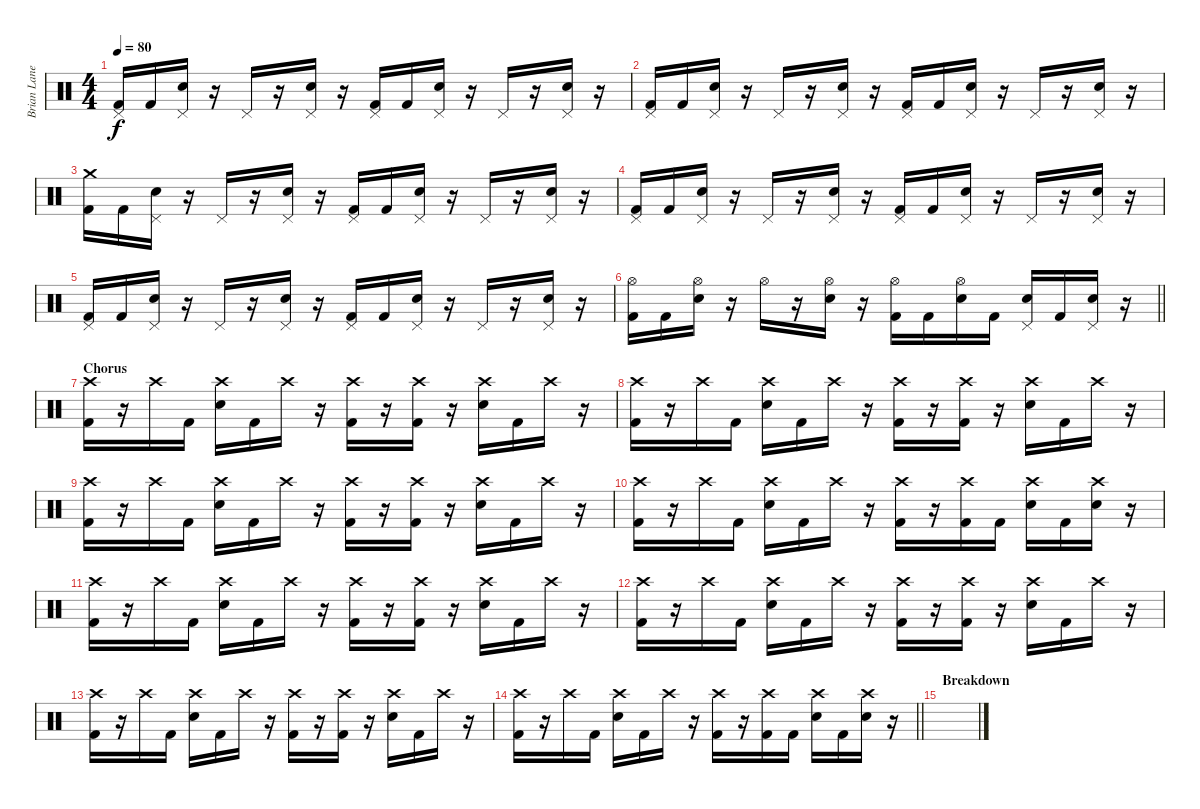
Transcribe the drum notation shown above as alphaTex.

\track ("Brian Lane" "Brian Lane") {instrument percussion}
\staff {score}
\articulation defaults
\ts (4 4)
\tempo 80
\clef neutral
\ks c
("Pedal Hi-Hat (hit)" "Kick (hit) 2").16{dy f} "Kick (hit) 2".16 ("Pedal Hi-Hat (hit)" "Electric Snare (hit)").16 r.16 "Pedal Hi-Hat (hit)".16 r.16 ("Pedal Hi-Hat (hit)" "Electric Snare (hit)").16 r.16 ("Pedal Hi-Hat (hit)" "Kick (hit) 2").16 "Kick (hit) 2".16 ("Pedal Hi-Hat (hit)" "Electric Snare (hit)").16 r.16 "Pedal Hi-Hat (hit)".16 r.16 ("Pedal Hi-Hat (hit)" "Electric Snare (hit)").16 r.16 |
("Pedal Hi-Hat (hit)" "Kick (hit) 2").16 "Kick (hit) 2".16 ("Pedal Hi-Hat (hit)" "Electric Snare (hit)").16 r.16 "Pedal Hi-Hat (hit)".16 r.16 ("Pedal Hi-Hat (hit)" "Electric Snare (hit)").16 r.16 ("Pedal Hi-Hat (hit)" "Kick (hit) 2").16 "Kick (hit) 2".16 ("Pedal Hi-Hat (hit)" "Electric Snare (hit)").16 r.16 "Pedal Hi-Hat (hit)".16 r.16 ("Pedal Hi-Hat (hit)" "Electric Snare (hit)").16 r.16 |
("Crash medium (hit)" "Kick (hit) 2").16 "Kick (hit) 2".16 ("Pedal Hi-Hat (hit)" "Electric Snare (hit)").16 r.16 "Pedal Hi-Hat (hit)".16 r.16 ("Pedal Hi-Hat (hit)" "Electric Snare (hit)").16 r.16 ("Pedal Hi-Hat (hit)" "Kick (hit) 2").16 "Kick (hit) 2".16 ("Pedal Hi-Hat (hit)" "Electric Snare (hit)").16 r.16 "Pedal Hi-Hat (hit)".16 r.16 ("Pedal Hi-Hat (hit)" "Electric Snare (hit)").16 r.16 |
("Pedal Hi-Hat (hit)" "Kick (hit) 2").16 "Kick (hit) 2".16 ("Pedal Hi-Hat (hit)" "Electric Snare (hit)").16 r.16 "Pedal Hi-Hat (hit)".16 r.16 ("Pedal Hi-Hat (hit)" "Electric Snare (hit)").16 r.16 ("Pedal Hi-Hat (hit)" "Kick (hit) 2").16 "Kick (hit) 2".16 ("Pedal Hi-Hat (hit)" "Electric Snare (hit)").16 r.16 "Pedal Hi-Hat (hit)".16 r.16 ("Pedal Hi-Hat (hit)" "Electric Snare (hit)").16 r.16 |
("Pedal Hi-Hat (hit)" "Kick (hit) 2").16 "Kick (hit) 2".16 ("Pedal Hi-Hat (hit)" "Electric Snare (hit)").16 r.16 "Pedal Hi-Hat (hit)".16 r.16 ("Pedal Hi-Hat (hit)" "Electric Snare (hit)").16 r.16 ("Pedal Hi-Hat (hit)" "Kick (hit) 2").16 "Kick (hit) 2".16 ("Pedal Hi-Hat (hit)" "Electric Snare (hit)").16 r.16 "Pedal Hi-Hat (hit)".16 r.16 ("Pedal Hi-Hat (hit)" "Electric Snare (hit)").16 r.16 |
\barLineRight lightlight
("Hi-Hat (open)" "Kick (hit) 2").16 "Kick (hit) 2".16 ("Hi-Hat (open)" "Electric Snare (hit)").16 r.16 "Hi-Hat (open)".16 r.16 ("Hi-Hat (open)" "Electric Snare (hit)").16 r.16 ("Hi-Hat (open)" "Kick (hit) 2").16 "Kick (hit) 2".16 ("Hi-Hat (open)" "Electric Snare (hit)").16 "Kick (hit) 2".16 ("Pedal Hi-Hat (hit)" "Electric Snare (hit)").16 "Kick (hit) 2".16 ("Pedal Hi-Hat (hit)" "Electric Snare (hit)").16 r.16 |
\section ("" "Chorus")
("Crash high (hit)" "Kick (hit) 2").16 r.16 "Crash high (hit)".16 "Kick (hit) 2".16 ("Crash high (hit)" "Electric Snare (hit)").16 "Kick (hit) 2".16 "Crash high (hit)".16 r.16 ("Crash high (hit)" "Kick (hit) 2").16 r.16 ("Crash high (hit)" "Kick (hit) 2").16 r.16 ("Crash high (hit)" "Electric Snare (hit)").16 "Kick (hit) 2".16 "Crash high (hit)".16 r.16 |
("Crash high (hit)" "Kick (hit) 2").16 r.16 "Crash high (hit)".16 "Kick (hit) 2".16 ("Crash high (hit)" "Electric Snare (hit)").16 "Kick (hit) 2".16 "Crash high (hit)".16 r.16 ("Crash high (hit)" "Kick (hit) 2").16 r.16 ("Crash high (hit)" "Kick (hit) 2").16 r.16 ("Crash high (hit)" "Electric Snare (hit)").16 "Kick (hit) 2".16 "Crash high (hit)".16 r.16 |
("Crash high (hit)" "Kick (hit) 2").16 r.16 "Crash high (hit)".16 "Kick (hit) 2".16 ("Crash high (hit)" "Electric Snare (hit)").16 "Kick (hit) 2".16 "Crash high (hit)".16 r.16 ("Crash high (hit)" "Kick (hit) 2").16 r.16 ("Crash high (hit)" "Kick (hit) 2").16 r.16 ("Crash high (hit)" "Electric Snare (hit)").16 "Kick (hit) 2".16 "Crash high (hit)".16 r.16 |
("Crash high (hit)" "Kick (hit) 2").16 r.16 "Crash high (hit)".16 "Kick (hit) 2".16 ("Crash high (hit)" "Electric Snare (hit)").16 "Kick (hit) 2".16 "Crash high (hit)".16 r.16 ("Crash high (hit)" "Kick (hit) 2").16 r.16 ("Crash high (hit)" "Kick (hit) 2").16 "Kick (hit) 2".16 ("Crash high (hit)" "Electric Snare (hit)").16 "Kick (hit) 2".16 ("Crash high (hit)" "Electric Snare (hit)").16 r.16 |
("Crash high (hit)" "Kick (hit) 2").16 r.16 "Crash high (hit)".16 "Kick (hit) 2".16 ("Crash high (hit)" "Electric Snare (hit)").16 "Kick (hit) 2".16 "Crash high (hit)".16 r.16 ("Crash high (hit)" "Kick (hit) 2").16 r.16 ("Crash high (hit)" "Kick (hit) 2").16 r.16 ("Crash high (hit)" "Electric Snare (hit)").16 "Kick (hit) 2".16 "Crash high (hit)".16 r.16 |
("Crash high (hit)" "Kick (hit) 2").16 r.16 "Crash high (hit)".16 "Kick (hit) 2".16 ("Crash high (hit)" "Electric Snare (hit)").16 "Kick (hit) 2".16 "Crash high (hit)".16 r.16 ("Crash high (hit)" "Kick (hit) 2").16 r.16 ("Crash high (hit)" "Kick (hit) 2").16 r.16 ("Crash high (hit)" "Electric Snare (hit)").16 "Kick (hit) 2".16 "Crash high (hit)".16 r.16 |
("Crash high (hit)" "Kick (hit) 2").16 r.16 "Crash high (hit)".16 "Kick (hit) 2".16 ("Crash high (hit)" "Electric Snare (hit)").16 "Kick (hit) 2".16 "Crash high (hit)".16 r.16 ("Crash high (hit)" "Kick (hit) 2").16 r.16 ("Crash high (hit)" "Kick (hit) 2").16 r.16 ("Crash high (hit)" "Electric Snare (hit)").16 "Kick (hit) 2".16 "Crash high (hit)".16 r.16 |
\barLineRight lightlight
("Crash high (hit)" "Kick (hit) 2").16 r.16 "Crash high (hit)".16 "Kick (hit) 2".16 ("Crash high (hit)" "Electric Snare (hit)").16 "Kick (hit) 2".16 "Crash high (hit)".16 r.16 ("Crash high (hit)" "Kick (hit) 2").16 r.16 ("Crash high (hit)" "Kick (hit) 2").16 "Kick (hit) 2".16 ("Crash high (hit)" "Electric Snare (hit)").16 "Kick (hit) 2".16 ("Crash high (hit)" "Electric Snare (hit)").16 r.16 |
\section ("" "Breakdown")
